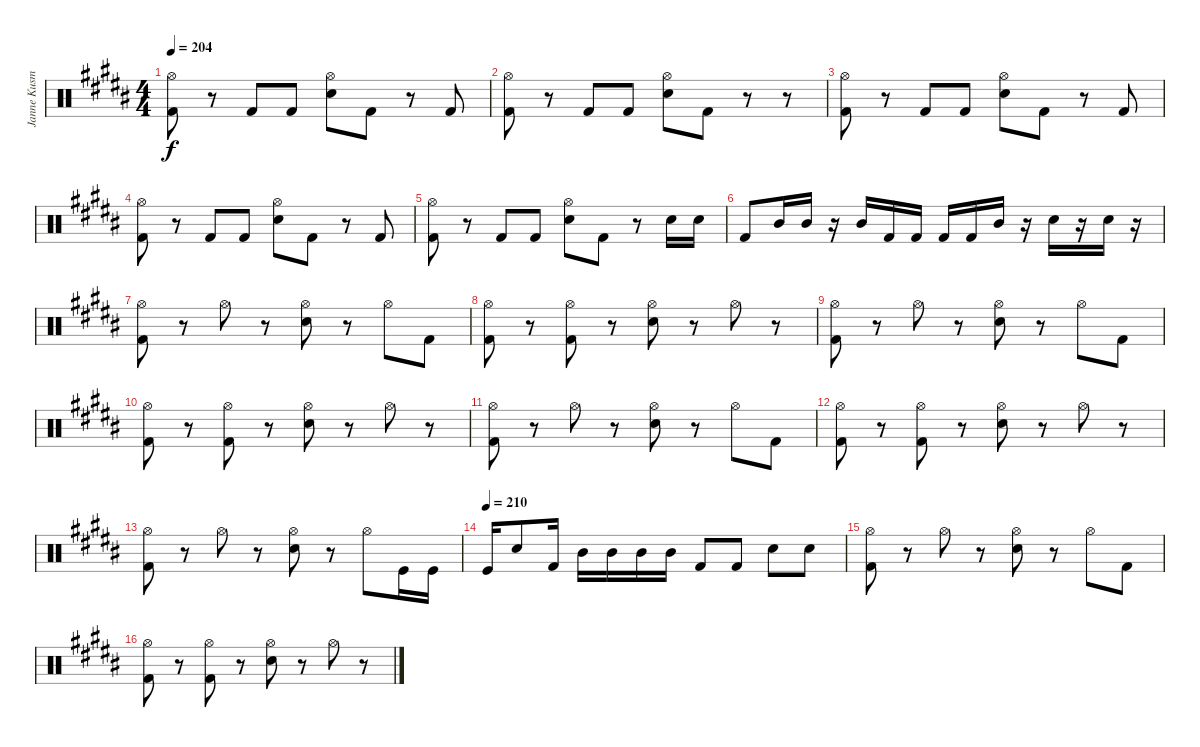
\track ("Janne Kusmin" "Janne Kusm") {instrument percussion}
\staff {score}
\articulation defaults
\ts (4 4)
\tempo 204
\clef neutral
\ks g#minor
("Kick (hit) 2" "Hi-Hat (open)").8{dy f} r.8 "Kick (hit) 2".8 "Kick (hit) 2".8 ("Electric Snare (hit)" "Hi-Hat (open)").8 "Kick (hit) 2".8 r.8 "Kick (hit) 2".8 |
("Kick (hit) 2" "Hi-Hat (open)").8 r.8 "Kick (hit) 2".8 "Kick (hit) 2".8 ("Electric Snare (hit)" "Hi-Hat (open)").8 "Kick (hit) 2".8 r.8 r.8 |
("Kick (hit) 2" "Hi-Hat (open)").8 r.8 "Kick (hit) 2".8 "Kick (hit) 2".8 ("Electric Snare (hit)" "Hi-Hat (open)").8 "Kick (hit) 2".8 r.8 "Kick (hit) 2".8 |
("Kick (hit) 2" "Hi-Hat (open)").8 r.8 "Kick (hit) 2".8 "Kick (hit) 2".8 ("Electric Snare (hit)" "Hi-Hat (open)").8 "Kick (hit) 2".8 r.8 "Kick (hit) 2".8 |
("Kick (hit) 2" "Hi-Hat (open)").8 r.8 "Kick (hit) 2".8 "Kick (hit) 2".8 ("Electric Snare (hit)" "Hi-Hat (open)").8 "Kick (hit) 2".8 r.8 "Electric Snare (hit)".16 "Electric Snare (hit)".16 |
"Kick (hit) 2".8 "Mid Tom (hit)".16 "Mid Tom (hit)".16 r.16 "Mid Tom (hit)".16 "Kick (hit) 2".16 "Kick (hit) 2".16 "Kick (hit) 2".16 "Kick (hit) 2".16 "Mid Tom (hit)".16 r.16 "Electric Snare (hit)".16 r.16 "Electric Snare (hit)".16 r.16 |
("Kick (hit) 2" "Hi-Hat (open)").8 r.8 "Hi-Hat (open)".8 r.8 ("Electric Snare (hit)" "Hi-Hat (open)").8 r.8 "Hi-Hat (open)".8 "Kick (hit) 2".8 |
("Kick (hit) 2" "Hi-Hat (open)").8 r.8 ("Kick (hit) 2" "Hi-Hat (open)").8 r.8 ("Electric Snare (hit)" "Hi-Hat (open)").8 r.8 "Hi-Hat (open)".8 r.8 |
("Kick (hit) 2" "Hi-Hat (open)").8 r.8 "Hi-Hat (open)".8 r.8 ("Electric Snare (hit)" "Hi-Hat (open)").8 r.8 "Hi-Hat (open)".8 "Kick (hit) 2".8 |
("Kick (hit) 2" "Hi-Hat (open)").8 r.8 ("Kick (hit) 2" "Hi-Hat (open)").8 r.8 ("Electric Snare (hit)" "Hi-Hat (open)").8 r.8 "Hi-Hat (open)".8 r.8 |
("Kick (hit) 2" "Hi-Hat (open)").8 r.8 "Hi-Hat (open)".8 r.8 ("Electric Snare (hit)" "Hi-Hat (open)").8 r.8 "Hi-Hat (open)".8 "Kick (hit) 2".8 |
("Kick (hit) 2" "Hi-Hat (open)").8 r.8 ("Kick (hit) 2" "Hi-Hat (open)").8 r.8 ("Electric Snare (hit)" "Hi-Hat (open)").8 r.8 "Hi-Hat (open)".8 r.8 |
("Kick (hit) 2" "Hi-Hat (open)").8 r.8 "Hi-Hat (open)".8 r.8 ("Electric Snare (hit)" "Hi-Hat (open)").8 r.8 "Hi-Hat (open)".8 "Kick (hit)".16 "Kick (hit)".16 |
\tempo (210)
"Kick (hit)".16 "Electric Snare (hit)".8 "Kick (hit) 2".16 "Mid Tom (hit)".16 "Mid Tom (hit)".16 "Mid Tom (hit)".16 "Mid Tom (hit)".16 "Kick (hit) 2".8 "Kick (hit) 2".8 "Electric Snare (hit)".8 "Electric Snare (hit)".8 |
("Kick (hit) 2" "Hi-Hat (open)").8 r.8 "Hi-Hat (open)".8 r.8 ("Electric Snare (hit)" "Hi-Hat (open)").8 r.8 "Hi-Hat (open)".8 "Kick (hit) 2".8 |
("Kick (hit) 2" "Hi-Hat (open)").8 r.8 ("Kick (hit) 2" "Hi-Hat (open)").8 r.8 ("Electric Snare (hit)" "Hi-Hat (open)").8 r.8 "Hi-Hat (open)".8 r.8
